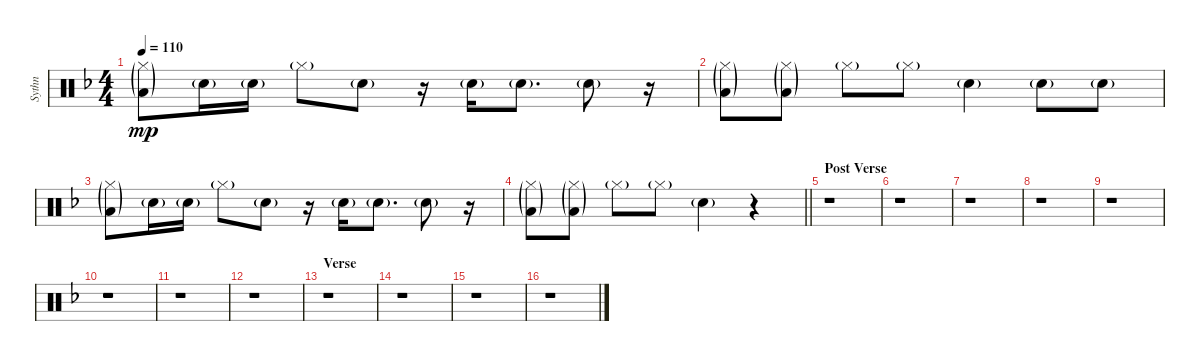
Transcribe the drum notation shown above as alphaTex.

\track ("Sythn" "Sythn") {instrument percussion}
\staff {score}
\articulation defaults
\ts (4 4)
\tempo 110
\clef neutral
\ks f
("Hi-Hat (closed)"{g} "Low Floor Tom (hit)"{g}).8{dy mp volume 6} "Snare (hit) 2"{g}.16 "Snare (hit) 2"{g}.16 "Hi-Hat (closed)"{g}.8 "Snare (hit) 2"{g}.8 r.16 "Snare (hit) 2"{g}.16 "Snare (hit) 2"{g}.8{d} "Snare (hit) 2"{g}.8 r.16 |
("Hi-Hat (closed)"{g} "Low Floor Tom (hit)"{g}).8 ("Hi-Hat (closed)"{g} "Low Floor Tom (hit)"{g}).8 "Hi-Hat (closed)"{g}.8 "Hi-Hat (closed)"{g}.8 "Snare (hit) 2"{g}.4 "Snare (hit) 2"{g}.8 "Snare (hit) 2"{g}.8 |
("Hi-Hat (closed)"{g} "Low Floor Tom (hit)"{g}).8{volume 6} "Snare (hit) 2"{g}.16 "Snare (hit) 2"{g}.16 "Hi-Hat (closed)"{g}.8 "Snare (hit) 2"{g}.8 r.16 "Snare (hit) 2"{g}.16 "Snare (hit) 2"{g}.8{d} "Snare (hit) 2"{g}.8 r.16 |
\barLineRight lightlight
("Hi-Hat (closed)"{g} "Low Floor Tom (hit)"{g}).8 ("Hi-Hat (closed)"{g} "Low Floor Tom (hit)"{g}).8 "Hi-Hat (closed)"{g}.8 "Hi-Hat (closed)"{g}.8 "Snare (hit) 2"{g}.4 r.4 |
\section ("" "Post Verse")
r.1 |
r.1 |
r.1 |
r.1 |
r.1 |
r.1 |
r.1 |
r.1 |
\section ("" "Verse")
r.1 |
r.1 |
r.1 |
r.1
